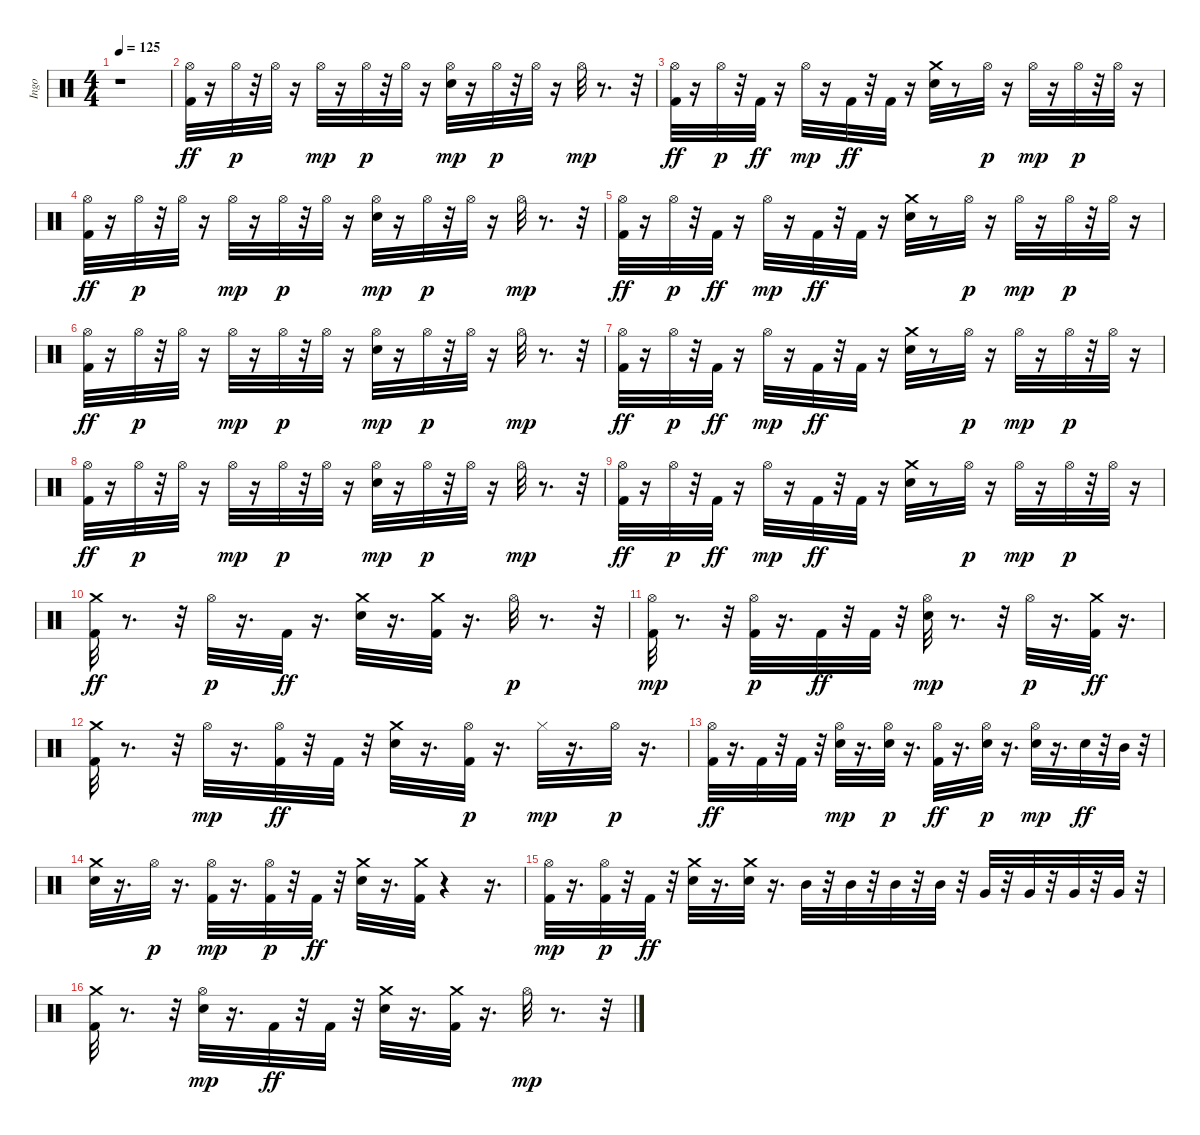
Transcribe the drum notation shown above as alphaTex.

\track ("Ingo" "Ingo") {instrument percussion}
\staff {score}
\articulation defaults
\ts (4 4)
\tempo 125
\clef neutral
\ks c
r.1{dy ff} |
("Hi-Hat (open)" "Kick (hit) 2").32 r.16 "Hi-Hat (open)".32{dy p} r.32 "Hi-Hat (open)".32 r.16 "Hi-Hat (open)".32{dy mp} r.16 "Hi-Hat (open)".32{dy p} r.32 "Hi-Hat (open)".32 r.16 ("Snare (hit) 2" "Hi-Hat (open)").32{dy mp} r.16 "Hi-Hat (open)".32{dy p} r.32 "Hi-Hat (open)".32 r.16 "Hi-Hat (open)".32{dy mp} r.8{d} r.32 |
("Hi-Hat (open)" "Kick (hit) 2").32{dy ff} r.16 "Hi-Hat (open)".32{dy p} r.32 "Kick (hit) 2".32{dy ff} r.16 "Hi-Hat (open)".32{dy mp} r.16 "Kick (hit) 2".32{dy ff} r.32 "Kick (hit) 2".32 r.16 ("Crash medium (hit)" "Snare (hit) 2").32 r.8 "Hi-Hat (open)".32{dy p} r.16 "Hi-Hat (open)".32{dy mp} r.16 "Hi-Hat (open)".32{dy p} r.32 "Hi-Hat (open)".32 r.16 |
("Hi-Hat (open)" "Kick (hit) 2").32{dy ff} r.16 "Hi-Hat (open)".32{dy p} r.32 "Hi-Hat (open)".32 r.16 "Hi-Hat (open)".32{dy mp} r.16 "Hi-Hat (open)".32{dy p} r.32 "Hi-Hat (open)".32 r.16 ("Snare (hit) 2" "Hi-Hat (open)").32{dy mp} r.16 "Hi-Hat (open)".32{dy p} r.32 "Hi-Hat (open)".32 r.16 "Hi-Hat (open)".32{dy mp} r.8{d} r.32 |
("Hi-Hat (open)" "Kick (hit) 2").32{dy ff} r.16 "Hi-Hat (open)".32{dy p} r.32 "Kick (hit) 2".32{dy ff} r.16 "Hi-Hat (open)".32{dy mp} r.16 "Kick (hit) 2".32{dy ff} r.32 "Kick (hit) 2".32 r.16 ("Crash medium (hit)" "Snare (hit) 2").32 r.8 "Hi-Hat (open)".32{dy p} r.16 "Hi-Hat (open)".32{dy mp} r.16 "Hi-Hat (open)".32{dy p} r.32 "Hi-Hat (open)".32 r.16 |
("Hi-Hat (open)" "Kick (hit) 2").32{dy ff} r.16 "Hi-Hat (open)".32{dy p} r.32 "Hi-Hat (open)".32 r.16 "Hi-Hat (open)".32{dy mp} r.16 "Hi-Hat (open)".32{dy p} r.32 "Hi-Hat (open)".32 r.16 ("Snare (hit) 2" "Hi-Hat (open)").32{dy mp} r.16 "Hi-Hat (open)".32{dy p} r.32 "Hi-Hat (open)".32 r.16 "Hi-Hat (open)".32{dy mp} r.8{d} r.32 |
("Hi-Hat (open)" "Kick (hit) 2").32{dy ff} r.16 "Hi-Hat (open)".32{dy p} r.32 "Kick (hit) 2".32{dy ff} r.16 "Hi-Hat (open)".32{dy mp} r.16 "Kick (hit) 2".32{dy ff} r.32 "Kick (hit) 2".32 r.16 ("Crash medium (hit)" "Snare (hit) 2").32 r.8 "Hi-Hat (open)".32{dy p} r.16 "Hi-Hat (open)".32{dy mp} r.16 "Hi-Hat (open)".32{dy p} r.32 "Hi-Hat (open)".32 r.16 |
("Hi-Hat (open)" "Kick (hit) 2").32{dy ff} r.16 "Hi-Hat (open)".32{dy p} r.32 "Hi-Hat (open)".32 r.16 "Hi-Hat (open)".32{dy mp} r.16 "Hi-Hat (open)".32{dy p} r.32 "Hi-Hat (open)".32 r.16 ("Snare (hit) 2" "Hi-Hat (open)").32{dy mp} r.16 "Hi-Hat (open)".32{dy p} r.32 "Hi-Hat (open)".32 r.16 "Hi-Hat (open)".32{dy mp} r.8{d} r.32 |
("Hi-Hat (open)" "Kick (hit) 2").32{dy ff} r.16 "Hi-Hat (open)".32{dy p} r.32 "Kick (hit) 2".32{dy ff} r.16 "Hi-Hat (open)".32{dy mp} r.16 "Kick (hit) 2".32{dy ff} r.32 "Kick (hit) 2".32 r.16 ("Crash medium (hit)" "Snare (hit) 2").32 r.8 "Hi-Hat (open)".32{dy p} r.16 "Hi-Hat (open)".32{dy mp} r.16 "Hi-Hat (open)".32{dy p} r.32 "Hi-Hat (open)".32 r.16 |
("Kick (hit) 2" "Crash medium (hit)").32{dy ff} r.8{d} r.32 "Hi-Hat (open)".32{dy p} r.16{d} "Kick (hit) 2".32{dy ff} r.16{d} ("Snare (hit) 2" "Crash medium (hit)").32 r.16{d} ("Kick (hit) 2" "Crash medium (hit)").32 r.16{d} "Hi-Hat (open)".32{dy p} r.8{d} r.32 |
("Kick (hit) 2" "Hi-Hat (open)").32{dy mp} r.8{d} r.32 ("Kick (hit) 2" "Hi-Hat (open)").32{dy p} r.16{d} "Kick (hit) 2".32{dy ff} r.32 "Kick (hit) 2".32 r.32 ("Snare (hit) 2" "Hi-Hat (open)").32{dy mp} r.8{d} r.32 "Hi-Hat (open)".32{dy p} r.16{d} ("Kick (hit) 2" "Crash medium (hit)").32{dy ff} r.16{d} |
("Kick (hit) 2" "Crash medium (hit)").32 r.8{d} r.32 "Hi-Hat (open)".32{dy mp} r.16{d} ("Hi-Hat (open)" "Kick (hit) 2").32{dy ff} r.32 "Kick (hit) 2".32 r.32 ("Snare (hit) 2" "Crash medium (hit)").32 r.16{d} ("Kick (hit) 2" "Hi-Hat (open)").32{dy p} r.16{d} "Hi-Hat (closed)".32{dy mp} r.16{d} "Hi-Hat (open)".32{dy p} r.16{d} |
("Hi-Hat (open)" "Kick (hit) 2").32{dy ff} r.16{d} "Kick (hit) 2".32 r.32 "Kick (hit) 2".32 r.32 ("Snare (hit) 2" "Hi-Hat (open)").32{dy mp} r.16{d} ("Snare (hit) 2" "Hi-Hat (open)").32{dy p} r.16{d} ("Hi-Hat (open)" "Kick (hit) 2").32{dy ff} r.16{d} ("Snare (hit) 2" "Hi-Hat (open)").32{dy p} r.16{d} ("Snare (hit) 2" "Hi-Hat (open)").32{dy mp} r.16{d} "Snare (hit) 2".32{dy ff} r.32 "Mid Tom (hit)".32 r.32 |
("Snare (hit) 2" "Crash medium (hit)").32 r.16{d} "Hi-Hat (open)".32{dy p} r.16{d} ("Kick (hit) 2" "Hi-Hat (open)").32{dy mp} r.16{d} ("Kick (hit) 2" "Hi-Hat (open)").32{dy p} r.32 "Kick (hit) 2".32{dy ff} r.32 ("Snare (hit) 2" "Crash medium (hit)").32 r.16{d} ("Kick (hit) 2" "Crash medium (hit)").32 r.4 r.16{d} |
("Kick (hit) 2" "Hi-Hat (open)").32{dy mp} r.16{d} ("Kick (hit) 2" "Hi-Hat (open)").32{dy p} r.32 "Kick (hit) 2".32{dy ff} r.32 ("Snare (hit) 2" "Crash medium (hit)").32 r.16{d} ("Snare (hit) 2" "Crash medium (hit)").32 r.16{d} "Mid Tom (hit)".32 r.32 "Mid Tom (hit)".32 r.32 "Mid Tom (hit)".32 r.32 "Mid Tom (hit)".32 r.32 "Very Low Tom (hit)".32 r.32 "Very Low Tom (hit)".32 r.32 "Very Low Tom (hit)".32 r.32 "Very Low Tom (hit)".32 r.32 |
("Crash medium (hit)" "Kick (hit) 2").32 r.8{d} r.32 ("Snare (hit) 2" "Hi-Hat (open)").32{dy mp} r.16{d} "Kick (hit) 2".32{dy ff} r.32 "Kick (hit) 2".32 r.32 ("Snare (hit) 2" "Crash medium (hit)").32 r.16{d} ("Crash medium (hit)" "Kick (hit) 2").32 r.16{d} "Hi-Hat (open)".32{dy mp} r.8{d} r.32
